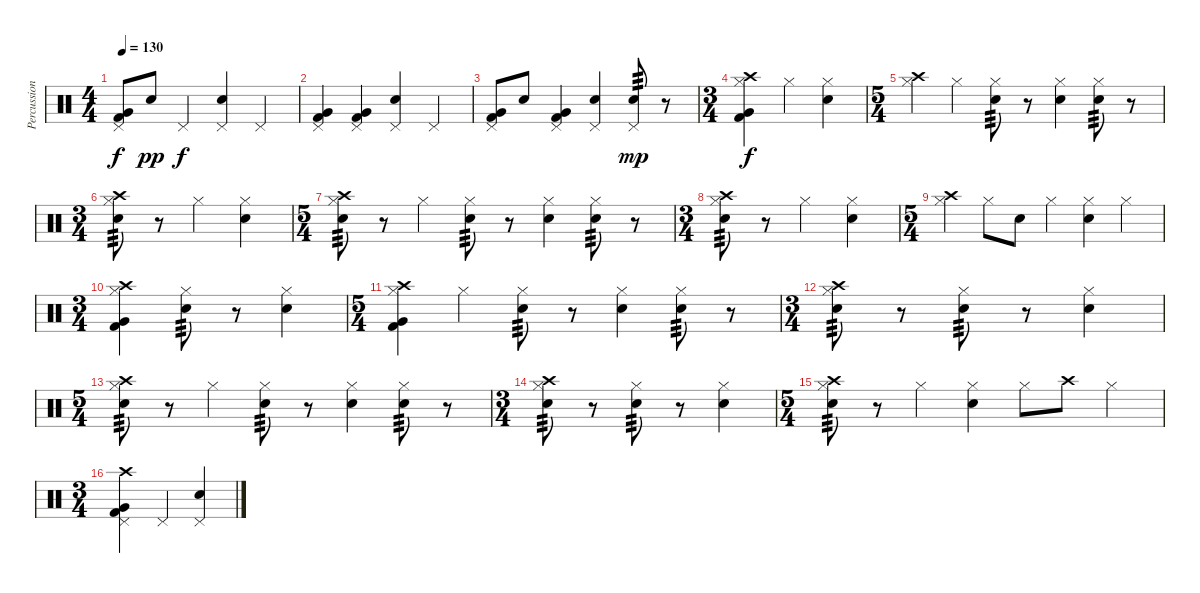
\track ("Percussion" "Percussion") {instrument percussion}
\staff {score}
\articulation defaults
\ts (4 4)
\tempo 130
\clef neutral
\ks c
("Pedal Hi-Hat (hit)" "Very Low Tom (hit)" "Kick (hit) 2").8{dy f} "Electric Snare (hit)".8{dy pp} "Pedal Hi-Hat (hit)".4{dy f} ("Pedal Hi-Hat (hit)" "Electric Snare (hit)").4 "Pedal Hi-Hat (hit)".4 |
("Pedal Hi-Hat (hit)" "Very Low Tom (hit)" "Kick (hit) 2").4 ("Pedal Hi-Hat (hit)" "Very Low Tom (hit)" "Kick (hit) 2").4 ("Pedal Hi-Hat (hit)" "Electric Snare (hit)").4 "Pedal Hi-Hat (hit)".4 |
("Pedal Hi-Hat (hit)" "Very Low Tom (hit)" "Kick (hit) 2").8 "Electric Snare (hit)".8 ("Pedal Hi-Hat (hit)" "Very Low Tom (hit)" "Kick (hit) 2").4 ("Pedal Hi-Hat (hit)" "Electric Snare (hit)").4 ("Pedal Hi-Hat (hit)" "Electric Snare (hit)").8{tp 3 dy mp} r.8 |
\ts (3 4)
("Crash high (hit)" "Hi-Hat (closed)" "Very Low Tom (hit)" "Kick (hit) 2").4{dy f} "Hi-Hat (closed)".4 ("Hi-Hat (closed)" "Electric Snare (hit)").4 |
\ts (5 4)
("Crash high (hit)" "Hi-Hat (closed)").4 "Hi-Hat (closed)".4 ("Hi-Hat (closed)" "Electric Snare (hit)").8{tp 3} r.8 ("Hi-Hat (closed)" "Electric Snare (hit)").4 ("Hi-Hat (closed)" "Electric Snare (hit)").8{tp 3} r.8 |
\ts (3 4)
("Crash high (hit)" "Hi-Hat (closed)" "Electric Snare (hit)").8{tp 3} r.8 "Hi-Hat (closed)".4 ("Hi-Hat (closed)" "Electric Snare (hit)").4 |
\ts (5 4)
("Crash high (hit)" "Hi-Hat (closed)" "Electric Snare (hit)").8{tp 3} r.8 "Hi-Hat (closed)".4 ("Hi-Hat (closed)" "Electric Snare (hit)").8{tp 3} r.8 ("Hi-Hat (closed)" "Electric Snare (hit)").4 ("Hi-Hat (closed)" "Electric Snare (hit)").8{tp 3} r.8 |
\ts (3 4)
("Crash high (hit)" "Hi-Hat (closed)" "Electric Snare (hit)").8{tp 3} r.8 "Hi-Hat (closed)".4 ("Hi-Hat (closed)" "Electric Snare (hit)").4 |
\ts (5 4)
("Crash high (hit)" "Hi-Hat (closed)").4 "Hi-Hat (closed)".8 "Electric Snare (hit)".8 "Hi-Hat (closed)".4 ("Hi-Hat (closed)" "Electric Snare (hit)").4 "Hi-Hat (closed)".4 |
\ts (3 4)
("Crash high (hit)" "Hi-Hat (closed)" "Very Low Tom (hit)" "Kick (hit) 2").4 ("Hi-Hat (closed)" "Electric Snare (hit)").8{tp 3} r.8 ("Hi-Hat (closed)" "Electric Snare (hit)").4 |
\ts (5 4)
("Crash high (hit)" "Hi-Hat (closed)" "Very Low Tom (hit)" "Kick (hit) 2").4 "Hi-Hat (closed)".4 ("Hi-Hat (closed)" "Electric Snare (hit)").8{tp 3} r.8 ("Hi-Hat (closed)" "Electric Snare (hit)").4 ("Hi-Hat (closed)" "Electric Snare (hit)").8{tp 3} r.8 |
\ts (3 4)
("Crash high (hit)" "Hi-Hat (closed)" "Electric Snare (hit)").8{tp 3} r.8 ("Hi-Hat (closed)" "Electric Snare (hit)").8{tp 3} r.8 ("Hi-Hat (closed)" "Electric Snare (hit)").4 |
\ts (5 4)
("Crash high (hit)" "Hi-Hat (closed)" "Electric Snare (hit)").8{tp 3} r.8 "Hi-Hat (closed)".4 ("Hi-Hat (closed)" "Electric Snare (hit)").8{tp 3} r.8 ("Hi-Hat (closed)" "Electric Snare (hit)").4 ("Hi-Hat (closed)" "Electric Snare (hit)").8{tp 3} r.8 |
\ts (3 4)
("Crash high (hit)" "Hi-Hat (closed)" "Electric Snare (hit)").8{tp 3} r.8 ("Hi-Hat (closed)" "Electric Snare (hit)").8{tp 3} r.8 ("Hi-Hat (closed)" "Electric Snare (hit)").4 |
\ts (5 4)
("Crash high (hit)" "Hi-Hat (closed)" "Electric Snare (hit)").8{tp 3} r.8 "Hi-Hat (closed)".4 ("Hi-Hat (closed)" "Electric Snare (hit)").4 "Hi-Hat (closed)".8 "Crash high (hit)".8 "Hi-Hat (closed)".4 |
\ts (3 4)
("Crash high (hit)" "Pedal Hi-Hat (hit)" "Very Low Tom (hit)" "Kick (hit) 2").4{volume 10} "Pedal Hi-Hat (hit)".4 ("Pedal Hi-Hat (hit)" "Electric Snare (hit)").4
